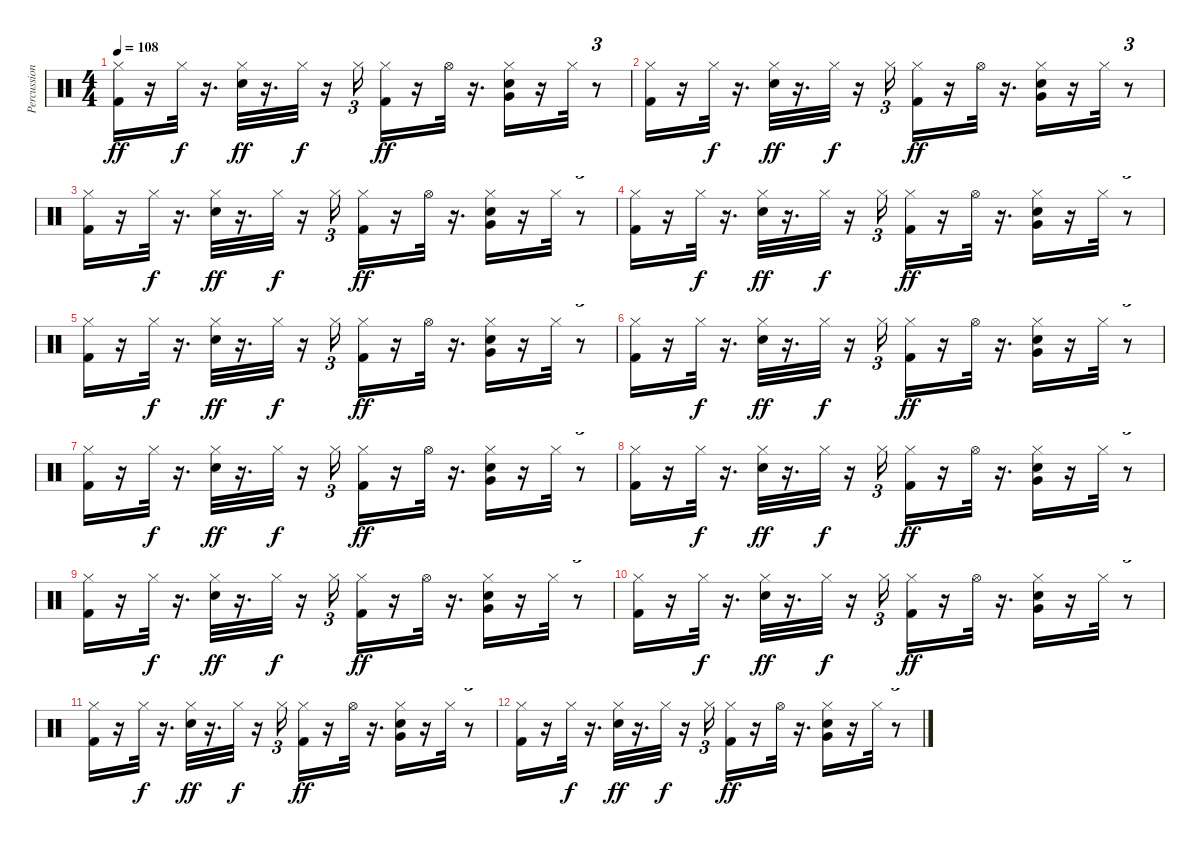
\track ("Percussion" "Percussion") {instrument percussion}
\staff {score}
\articulation defaults
\ts (4 4)
\tempo 108
\clef neutral
\ks c
("Kick (hit) 2" "Hi-Hat (closed)").16{dy ff volume 12} r.16 "Hi-Hat (closed)".32{dy f} r.16{d} ("Snare (hit) 2" "Hi-Hat (closed)").32{dy ff} r.16{d} "Hi-Hat (closed)".32{dy f} r.16 "Hi-Hat (closed)".16{tu (3 2)} ("Hi-Hat (closed)" "Kick (hit) 2").16{dy ff} r.16 "Hi-Hat (open)".32 r.16{d} ("Snare (hit) 2" "Very Low Tom (hit)" "Hi-Hat (closed)").16 r.16 "Hi-Hat (closed)".32 r.8{tu (3 2)} |
("Kick (hit) 2" "Hi-Hat (closed)").16{volume 12} r.16 "Hi-Hat (closed)".32{dy f} r.16{d} ("Snare (hit) 2" "Hi-Hat (closed)").32{dy ff} r.16{d} "Hi-Hat (closed)".32{dy f} r.16 "Hi-Hat (closed)".16{tu (3 2)} ("Hi-Hat (closed)" "Kick (hit) 2").16{dy ff} r.16 "Hi-Hat (open)".32 r.16{d} ("Snare (hit) 2" "Very Low Tom (hit)" "Hi-Hat (closed)").16 r.16 "Hi-Hat (closed)".32 r.8{tu (3 2)} |
("Kick (hit) 2" "Hi-Hat (closed)").16{volume 12} r.16 "Hi-Hat (closed)".32{dy f} r.16{d} ("Snare (hit) 2" "Hi-Hat (closed)").32{dy ff} r.16{d} "Hi-Hat (closed)".32{dy f} r.16 "Hi-Hat (closed)".16{tu (3 2)} ("Hi-Hat (closed)" "Kick (hit) 2").16{dy ff} r.16 "Hi-Hat (open)".32 r.16{d} ("Snare (hit) 2" "Very Low Tom (hit)" "Hi-Hat (closed)").16 r.16 "Hi-Hat (closed)".32 r.8{tu (3 2)} |
("Kick (hit) 2" "Hi-Hat (closed)").16{volume 12} r.16 "Hi-Hat (closed)".32{dy f} r.16{d} ("Snare (hit) 2" "Hi-Hat (closed)").32{dy ff} r.16{d} "Hi-Hat (closed)".32{dy f} r.16 "Hi-Hat (closed)".16{tu (3 2)} ("Hi-Hat (closed)" "Kick (hit) 2").16{dy ff} r.16 "Hi-Hat (open)".32 r.16{d} ("Snare (hit) 2" "Very Low Tom (hit)" "Hi-Hat (closed)").16 r.16 "Hi-Hat (closed)".32 r.8{tu (3 2)} |
("Kick (hit) 2" "Hi-Hat (closed)").16{volume 12} r.16 "Hi-Hat (closed)".32{dy f} r.16{d} ("Snare (hit) 2" "Hi-Hat (closed)").32{dy ff} r.16{d} "Hi-Hat (closed)".32{dy f} r.16 "Hi-Hat (closed)".16{tu (3 2)} ("Hi-Hat (closed)" "Kick (hit) 2").16{dy ff} r.16 "Hi-Hat (open)".32 r.16{d} ("Snare (hit) 2" "Very Low Tom (hit)" "Hi-Hat (closed)").16 r.16 "Hi-Hat (closed)".32 r.8{tu (3 2)} |
("Kick (hit) 2" "Hi-Hat (closed)").16{volume 12} r.16 "Hi-Hat (closed)".32{dy f} r.16{d} ("Snare (hit) 2" "Hi-Hat (closed)").32{dy ff} r.16{d} "Hi-Hat (closed)".32{dy f} r.16 "Hi-Hat (closed)".16{tu (3 2)} ("Hi-Hat (closed)" "Kick (hit) 2").16{dy ff} r.16 "Hi-Hat (open)".32 r.16{d} ("Snare (hit) 2" "Very Low Tom (hit)" "Hi-Hat (closed)").16 r.16 "Hi-Hat (closed)".32 r.8{tu (3 2)} |
("Kick (hit) 2" "Hi-Hat (closed)").16{volume 12} r.16 "Hi-Hat (closed)".32{dy f} r.16{d} ("Snare (hit) 2" "Hi-Hat (closed)").32{dy ff} r.16{d} "Hi-Hat (closed)".32{dy f} r.16 "Hi-Hat (closed)".16{tu (3 2)} ("Hi-Hat (closed)" "Kick (hit) 2").16{dy ff} r.16 "Hi-Hat (open)".32 r.16{d} ("Snare (hit) 2" "Very Low Tom (hit)" "Hi-Hat (closed)").16 r.16 "Hi-Hat (closed)".32 r.8{tu (3 2)} |
("Kick (hit) 2" "Hi-Hat (closed)").16{volume 12} r.16 "Hi-Hat (closed)".32{dy f} r.16{d} ("Snare (hit) 2" "Hi-Hat (closed)").32{dy ff} r.16{d} "Hi-Hat (closed)".32{dy f} r.16 "Hi-Hat (closed)".16{tu (3 2)} ("Hi-Hat (closed)" "Kick (hit) 2").16{dy ff} r.16 "Hi-Hat (open)".32 r.16{d} ("Snare (hit) 2" "Very Low Tom (hit)" "Hi-Hat (closed)").16 r.16 "Hi-Hat (closed)".32 r.8{tu (3 2)} |
("Kick (hit) 2" "Hi-Hat (closed)").16{volume 12} r.16 "Hi-Hat (closed)".32{dy f} r.16{d} ("Snare (hit) 2" "Hi-Hat (closed)").32{dy ff} r.16{d} "Hi-Hat (closed)".32{dy f} r.16 "Hi-Hat (closed)".16{tu (3 2)} ("Hi-Hat (closed)" "Kick (hit) 2").16{dy ff} r.16 "Hi-Hat (open)".32 r.16{d} ("Snare (hit) 2" "Very Low Tom (hit)" "Hi-Hat (closed)").16 r.16 "Hi-Hat (closed)".32 r.8{tu (3 2)} |
("Kick (hit) 2" "Hi-Hat (closed)").16{volume 12} r.16 "Hi-Hat (closed)".32{dy f} r.16{d} ("Snare (hit) 2" "Hi-Hat (closed)").32{dy ff} r.16{d} "Hi-Hat (closed)".32{dy f} r.16 "Hi-Hat (closed)".16{tu (3 2)} ("Hi-Hat (closed)" "Kick (hit) 2").16{dy ff} r.16 "Hi-Hat (open)".32 r.16{d} ("Snare (hit) 2" "Very Low Tom (hit)" "Hi-Hat (closed)").16 r.16 "Hi-Hat (closed)".32 r.8{tu (3 2)} |
("Kick (hit) 2" "Hi-Hat (closed)").16{volume 12} r.16 "Hi-Hat (closed)".32{dy f} r.16{d} ("Snare (hit) 2" "Hi-Hat (closed)").32{dy ff} r.16{d} "Hi-Hat (closed)".32{dy f} r.16 "Hi-Hat (closed)".16{tu (3 2)} ("Hi-Hat (closed)" "Kick (hit) 2").16{dy ff} r.16 "Hi-Hat (open)".32 r.16{d} ("Snare (hit) 2" "Very Low Tom (hit)" "Hi-Hat (closed)").16 r.16 "Hi-Hat (closed)".32 r.8{tu (3 2)} |
("Kick (hit) 2" "Hi-Hat (closed)").16{volume 12} r.16 "Hi-Hat (closed)".32{dy f} r.16{d} ("Snare (hit) 2" "Hi-Hat (closed)").32{dy ff} r.16{d} "Hi-Hat (closed)".32{dy f} r.16 "Hi-Hat (closed)".16{tu (3 2)} ("Hi-Hat (closed)" "Kick (hit) 2").16{dy ff} r.16 "Hi-Hat (open)".32 r.16{d} ("Snare (hit) 2" "Very Low Tom (hit)" "Hi-Hat (closed)").16 r.16 "Hi-Hat (closed)".32 r.8{tu (3 2)}
